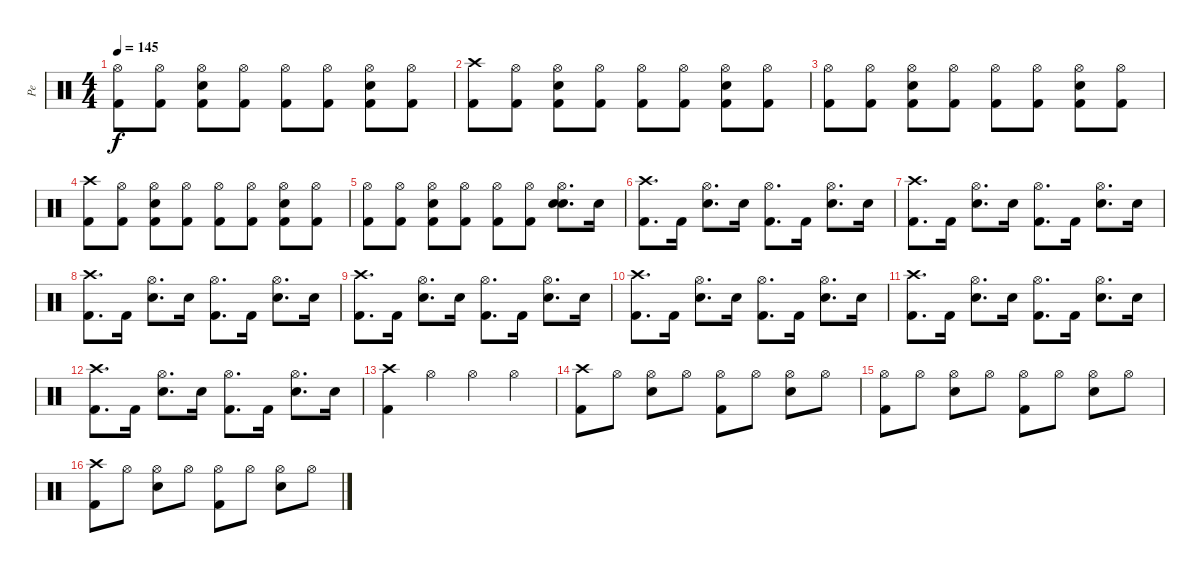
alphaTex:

\track ("Pe" "Pe") {instrument percussion}
\staff {score}
\articulation defaults
\ts (4 4)
\tempo 145
\clef neutral
\ks c
("Kick (hit) 2" "Hi-Hat (open)").8{dy f} ("Kick (hit) 2" "Hi-Hat (open)").8 ("Kick (hit) 2" "Hi-Hat (open)" "Snare (hit) 2").8 ("Kick (hit) 2" "Hi-Hat (open)").8 ("Kick (hit) 2" "Hi-Hat (open)").8 ("Kick (hit) 2" "Hi-Hat (open)").8 ("Kick (hit) 2" "Hi-Hat (open)" "Snare (hit) 2").8 ("Kick (hit) 2" "Hi-Hat (open)").8 |
("Kick (hit) 2" "Crash high (hit)").8 ("Kick (hit) 2" "Hi-Hat (open)").8 ("Kick (hit) 2" "Hi-Hat (open)" "Snare (hit) 2").8 ("Kick (hit) 2" "Hi-Hat (open)").8 ("Kick (hit) 2" "Hi-Hat (open)").8 ("Kick (hit) 2" "Hi-Hat (open)").8 ("Kick (hit) 2" "Hi-Hat (open)" "Snare (hit) 2").8 ("Kick (hit) 2" "Hi-Hat (open)").8 |
("Kick (hit) 2" "Hi-Hat (open)").8 ("Kick (hit) 2" "Hi-Hat (open)").8 ("Kick (hit) 2" "Hi-Hat (open)" "Snare (hit) 2").8 ("Kick (hit) 2" "Hi-Hat (open)").8 ("Kick (hit) 2" "Hi-Hat (open)").8 ("Kick (hit) 2" "Hi-Hat (open)").8 ("Kick (hit) 2" "Hi-Hat (open)" "Snare (hit) 2").8 ("Kick (hit) 2" "Hi-Hat (open)").8 |
("Kick (hit) 2" "Crash high (hit)").8 ("Kick (hit) 2" "Hi-Hat (open)").8 ("Kick (hit) 2" "Hi-Hat (open)" "Snare (hit) 2").8 ("Kick (hit) 2" "Hi-Hat (open)").8 ("Kick (hit) 2" "Hi-Hat (open)").8 ("Kick (hit) 2" "Hi-Hat (open)").8 ("Kick (hit) 2" "Hi-Hat (open)" "Snare (hit) 2").8 ("Kick (hit) 2" "Hi-Hat (open)").8 |
("Kick (hit) 2" "Hi-Hat (open)").8 ("Kick (hit) 2" "Hi-Hat (open)").8 ("Kick (hit) 2" "Hi-Hat (open)" "Snare (hit) 2").8 ("Kick (hit) 2" "Hi-Hat (open)").8 ("Kick (hit) 2" "Hi-Hat (open)").8 ("Kick (hit) 2" "Hi-Hat (open)").8 ("Snare (hit) 2" "Hi-Hat (open)" "Snare (hit) 2").8{d} "Snare (hit) 2".16 |
("Kick (hit) 2" "Crash high (hit)").8{d} "Kick (hit) 2".16 ("Snare (hit) 2" "Hi-Hat (open)").8{d} "Snare (hit) 2".16 ("Kick (hit) 2" "Hi-Hat (open)").8{d} "Kick (hit) 2".16 ("Snare (hit) 2" "Hi-Hat (open)").8{d} "Snare (hit) 2".16 |
("Kick (hit) 2" "Crash high (hit)").8{d} "Kick (hit) 2".16 ("Snare (hit) 2" "Hi-Hat (open)").8{d} "Snare (hit) 2".16 ("Kick (hit) 2" "Hi-Hat (open)").8{d} "Kick (hit) 2".16 ("Snare (hit) 2" "Hi-Hat (open)").8{d} "Snare (hit) 2".16 |
("Kick (hit) 2" "Crash high (hit)").8{d} "Kick (hit) 2".16 ("Snare (hit) 2" "Hi-Hat (open)").8{d} "Snare (hit) 2".16 ("Kick (hit) 2" "Hi-Hat (open)").8{d} "Kick (hit) 2".16 ("Snare (hit) 2" "Hi-Hat (open)").8{d} "Snare (hit) 2".16 |
("Kick (hit) 2" "Crash high (hit)").8{d} "Kick (hit) 2".16 ("Snare (hit) 2" "Hi-Hat (open)").8{d} "Snare (hit) 2".16 ("Kick (hit) 2" "Hi-Hat (open)").8{d} "Kick (hit) 2".16 ("Snare (hit) 2" "Hi-Hat (open)").8{d} "Snare (hit) 2".16 |
("Kick (hit) 2" "Crash high (hit)").8{d} "Kick (hit) 2".16 ("Snare (hit) 2" "Hi-Hat (open)").8{d} "Snare (hit) 2".16 ("Kick (hit) 2" "Hi-Hat (open)").8{d} "Kick (hit) 2".16 ("Snare (hit) 2" "Hi-Hat (open)").8{d} "Snare (hit) 2".16 |
("Kick (hit) 2" "Crash high (hit)").8{d} "Kick (hit) 2".16 ("Snare (hit) 2" "Hi-Hat (open)").8{d} "Snare (hit) 2".16 ("Kick (hit) 2" "Hi-Hat (open)").8{d} "Kick (hit) 2".16 ("Snare (hit) 2" "Hi-Hat (open)").8{d} "Snare (hit) 2".16 |
("Kick (hit) 2" "Crash high (hit)").8{d} "Kick (hit) 2".16 ("Snare (hit) 2" "Hi-Hat (open)").8{d} "Snare (hit) 2".16 ("Kick (hit) 2" "Hi-Hat (open)").8{d} "Kick (hit) 2".16 ("Snare (hit) 2" "Hi-Hat (open)").8{d} "Snare (hit) 2".16 |
("Kick (hit) 2" "Crash high (hit)").4 "Hi-Hat (open)".4 "Hi-Hat (open)".4 "Hi-Hat (open)".4 |
("Kick (hit) 2" "Crash high (hit)").8 "Hi-Hat (open)".8 ("Snare (hit) 2" "Hi-Hat (open)").8 "Hi-Hat (open)".8 ("Kick (hit) 2" "Hi-Hat (open)").8 "Hi-Hat (open)".8 ("Snare (hit) 2" "Hi-Hat (open)").8 "Hi-Hat (open)".8 |
("Kick (hit) 2" "Hi-Hat (open)").8 "Hi-Hat (open)".8 ("Snare (hit) 2" "Hi-Hat (open)").8 "Hi-Hat (open)".8 ("Kick (hit) 2" "Hi-Hat (open)").8 "Hi-Hat (open)".8 ("Snare (hit) 2" "Hi-Hat (open)").8 "Hi-Hat (open)".8 |
("Kick (hit) 2" "Crash high (hit)").8 "Hi-Hat (open)".8 ("Snare (hit) 2" "Hi-Hat (open)").8 "Hi-Hat (open)".8 ("Kick (hit) 2" "Hi-Hat (open)").8 "Hi-Hat (open)".8 ("Snare (hit) 2" "Hi-Hat (open)").8 "Hi-Hat (open)".8
